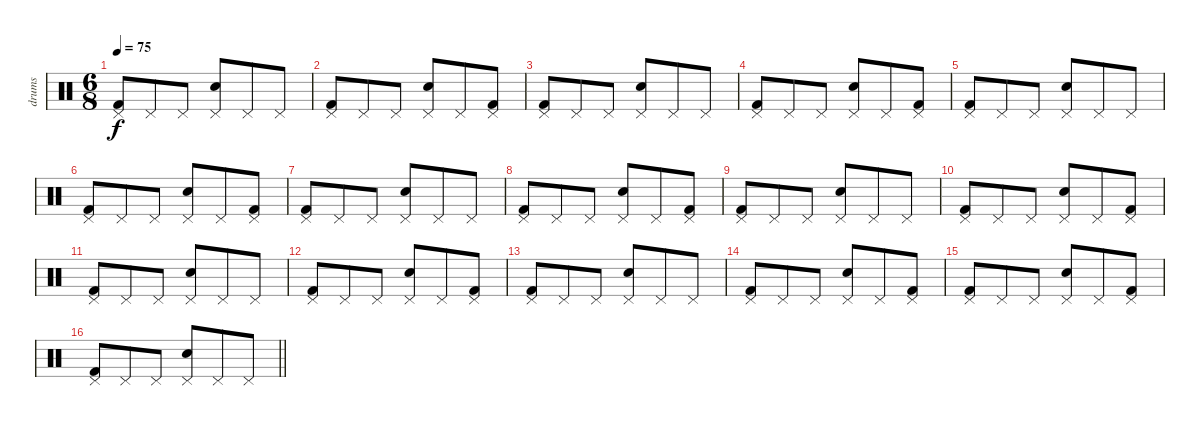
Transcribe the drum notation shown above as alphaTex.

\track ("drums" "drums") {instrument percussion}
\staff {score}
\articulation defaults
\ts (6 8)
\tempo 75
\clef neutral
\ks c
("Kick (hit) 2" "Pedal Hi-Hat (hit)").8{dy f} "Pedal Hi-Hat (hit)".8 "Pedal Hi-Hat (hit)".8 ("Electric Snare (hit)" "Pedal Hi-Hat (hit)").8 "Pedal Hi-Hat (hit)".8 "Pedal Hi-Hat (hit)".8 |
("Kick (hit) 2" "Pedal Hi-Hat (hit)").8 "Pedal Hi-Hat (hit)".8 "Pedal Hi-Hat (hit)".8 ("Electric Snare (hit)" "Pedal Hi-Hat (hit)").8 "Pedal Hi-Hat (hit)".8 ("Kick (hit) 2" "Pedal Hi-Hat (hit)").8 |
("Kick (hit) 2" "Pedal Hi-Hat (hit)").8 "Pedal Hi-Hat (hit)".8 "Pedal Hi-Hat (hit)".8 ("Electric Snare (hit)" "Pedal Hi-Hat (hit)").8 "Pedal Hi-Hat (hit)".8 "Pedal Hi-Hat (hit)".8 |
("Kick (hit) 2" "Pedal Hi-Hat (hit)").8 "Pedal Hi-Hat (hit)".8 "Pedal Hi-Hat (hit)".8 ("Electric Snare (hit)" "Pedal Hi-Hat (hit)").8 "Pedal Hi-Hat (hit)".8 ("Kick (hit) 2" "Pedal Hi-Hat (hit)").8 |
("Kick (hit) 2" "Pedal Hi-Hat (hit)").8 "Pedal Hi-Hat (hit)".8 "Pedal Hi-Hat (hit)".8 ("Electric Snare (hit)" "Pedal Hi-Hat (hit)").8 "Pedal Hi-Hat (hit)".8 "Pedal Hi-Hat (hit)".8 |
("Kick (hit) 2" "Pedal Hi-Hat (hit)").8 "Pedal Hi-Hat (hit)".8 "Pedal Hi-Hat (hit)".8 ("Electric Snare (hit)" "Pedal Hi-Hat (hit)").8 "Pedal Hi-Hat (hit)".8 ("Kick (hit) 2" "Pedal Hi-Hat (hit)").8 |
("Kick (hit) 2" "Pedal Hi-Hat (hit)").8 "Pedal Hi-Hat (hit)".8 "Pedal Hi-Hat (hit)".8 ("Electric Snare (hit)" "Pedal Hi-Hat (hit)").8 "Pedal Hi-Hat (hit)".8 "Pedal Hi-Hat (hit)".8 |
("Kick (hit) 2" "Pedal Hi-Hat (hit)").8 "Pedal Hi-Hat (hit)".8 "Pedal Hi-Hat (hit)".8 ("Electric Snare (hit)" "Pedal Hi-Hat (hit)").8 "Pedal Hi-Hat (hit)".8 ("Kick (hit) 2" "Pedal Hi-Hat (hit)").8 |
("Kick (hit) 2" "Pedal Hi-Hat (hit)").8 "Pedal Hi-Hat (hit)".8 "Pedal Hi-Hat (hit)".8 ("Electric Snare (hit)" "Pedal Hi-Hat (hit)").8 "Pedal Hi-Hat (hit)".8 "Pedal Hi-Hat (hit)".8 |
("Kick (hit) 2" "Pedal Hi-Hat (hit)").8 "Pedal Hi-Hat (hit)".8 "Pedal Hi-Hat (hit)".8 ("Electric Snare (hit)" "Pedal Hi-Hat (hit)").8 "Pedal Hi-Hat (hit)".8 ("Kick (hit) 2" "Pedal Hi-Hat (hit)").8 |
("Kick (hit) 2" "Pedal Hi-Hat (hit)").8 "Pedal Hi-Hat (hit)".8 "Pedal Hi-Hat (hit)".8 ("Electric Snare (hit)" "Pedal Hi-Hat (hit)").8 "Pedal Hi-Hat (hit)".8 "Pedal Hi-Hat (hit)".8 |
("Kick (hit) 2" "Pedal Hi-Hat (hit)").8 "Pedal Hi-Hat (hit)".8 "Pedal Hi-Hat (hit)".8 ("Electric Snare (hit)" "Pedal Hi-Hat (hit)").8 "Pedal Hi-Hat (hit)".8 ("Kick (hit) 2" "Pedal Hi-Hat (hit)").8 |
("Kick (hit) 2" "Pedal Hi-Hat (hit)").8 "Pedal Hi-Hat (hit)".8 "Pedal Hi-Hat (hit)".8 ("Electric Snare (hit)" "Pedal Hi-Hat (hit)").8 "Pedal Hi-Hat (hit)".8 "Pedal Hi-Hat (hit)".8 |
("Kick (hit) 2" "Pedal Hi-Hat (hit)").8 "Pedal Hi-Hat (hit)".8 "Pedal Hi-Hat (hit)".8 ("Electric Snare (hit)" "Pedal Hi-Hat (hit)").8 "Pedal Hi-Hat (hit)".8 ("Kick (hit) 2" "Pedal Hi-Hat (hit)").8 |
("Kick (hit) 2" "Pedal Hi-Hat (hit)").8 "Pedal Hi-Hat (hit)".8 "Pedal Hi-Hat (hit)".8 ("Electric Snare (hit)" "Pedal Hi-Hat (hit)").8 "Pedal Hi-Hat (hit)".8 ("Kick (hit) 2" "Pedal Hi-Hat (hit)").8 |
\barLineRight lightlight
("Kick (hit) 2" "Pedal Hi-Hat (hit)").8 "Pedal Hi-Hat (hit)".8 "Pedal Hi-Hat (hit)".8 ("Electric Snare (hit)" "Pedal Hi-Hat (hit)").8 "Pedal Hi-Hat (hit)".8 "Pedal Hi-Hat (hit)".8
